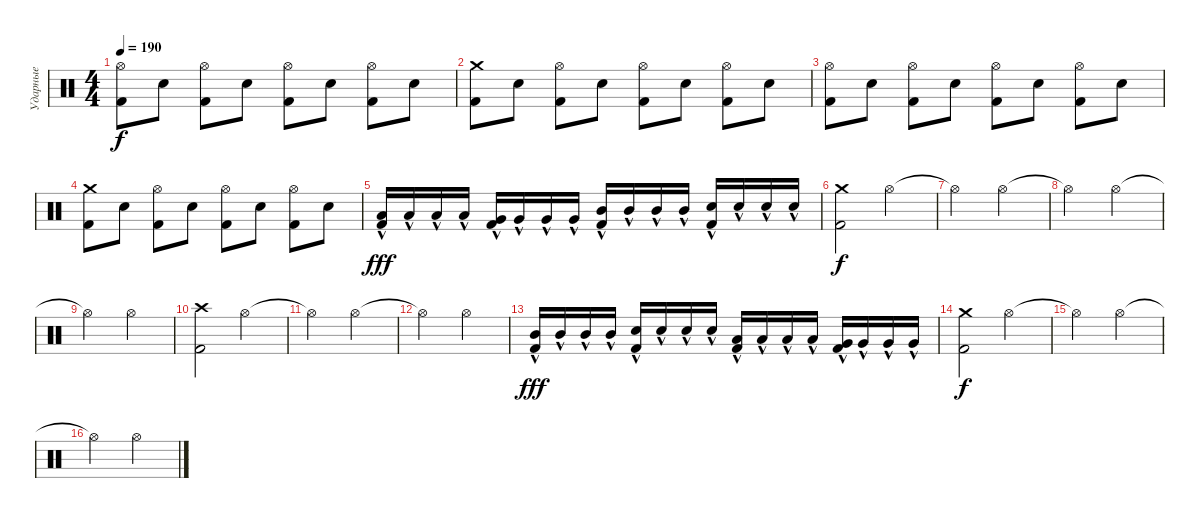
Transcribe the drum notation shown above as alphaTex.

\track ("Ударные" "Ударные") {instrument percussion}
\staff {score}
\articulation defaults
\ts (4 4)
\tempo 190
\clef neutral
\ks c
("Hi-Hat (open)" "Kick (hit) 2").8{dy f} "Electric Snare (hit)".8 ("Hi-Hat (open)" "Kick (hit) 2").8 "Electric Snare (hit)".8 ("Hi-Hat (open)" "Kick (hit) 2").8 "Electric Snare (hit)".8 ("Hi-Hat (open)" "Kick (hit) 2").8 "Electric Snare (hit)".8 |
("Crash medium (hit)" "Kick (hit) 2").8 "Electric Snare (hit)".8 ("Hi-Hat (open)" "Kick (hit) 2").8 "Electric Snare (hit)".8 ("Hi-Hat (open)" "Kick (hit) 2").8 "Electric Snare (hit)".8 ("Hi-Hat (open)" "Kick (hit) 2").8 "Electric Snare (hit)".8 |
("Hi-Hat (open)" "Kick (hit) 2").8 "Electric Snare (hit)".8 ("Hi-Hat (open)" "Kick (hit) 2").8 "Electric Snare (hit)".8 ("Hi-Hat (open)" "Kick (hit) 2").8 "Electric Snare (hit)".8 ("Hi-Hat (open)" "Kick (hit) 2").8 "Electric Snare (hit)".8 |
("Crash medium (hit)" "Kick (hit) 2").8 "Electric Snare (hit)".8 ("Hi-Hat (open)" "Kick (hit) 2").8 "Electric Snare (hit)".8 ("Hi-Hat (open)" "Kick (hit) 2").8 "Electric Snare (hit)".8 ("Hi-Hat (open)" "Kick (hit) 2").8 "Electric Snare (hit)".8 |
("Low Tom (hit)"{hac} "Kick (hit) 2"{hac}).16{dy fff} "Low Tom (hit)"{hac}.16 "Low Tom (hit)"{hac}.16 "Low Tom (hit)"{hac}.16 ("Very Low Tom (hit)"{hac} "Kick (hit) 2"{hac}).16 "Very Low Tom (hit)"{hac}.16 "Very Low Tom (hit)"{hac}.16 "Very Low Tom (hit)"{hac}.16 ("Mid Tom (hit)"{hac} "Kick (hit) 2"{hac}).16 "Mid Tom (hit)"{hac}.16 "Mid Tom (hit)"{hac}.16 "Mid Tom (hit)"{hac}.16 ("Electric Snare (hit)"{hac} "Kick (hit) 2"{hac}).16 "Electric Snare (hit)"{hac}.16 "Electric Snare (hit)"{hac}.16 "Electric Snare (hit)"{hac}.16 |
("Crash medium (hit)" "Kick (hit) 2").2{dy f} "Hi-Hat (open)".2 |
"Hi-Hat (open)"{t}.2 "Hi-Hat (open)".2 |
"Hi-Hat (open)"{t}.2 "Hi-Hat (open)".2 |
"Hi-Hat (open)"{t}.2 "Hi-Hat (open)".2 |
("Crash high (hit)" "Kick (hit) 2").2 "Hi-Hat (open)".2 |
"Hi-Hat (open)"{t}.2 "Hi-Hat (open)".2 |
"Hi-Hat (open)"{t}.2 "Hi-Hat (open)".2 |
("Mid Tom (hit)"{hac} "Kick (hit) 2"{hac}).16{dy fff} "Mid Tom (hit)"{hac}.16 "Mid Tom (hit)"{hac}.16 "Mid Tom (hit)"{hac}.16 ("Electric Snare (hit)"{hac} "Kick (hit) 2"{hac}).16 "Electric Snare (hit)"{hac}.16 "Electric Snare (hit)"{hac}.16 "Electric Snare (hit)"{hac}.16 ("Low Tom (hit)"{hac} "Kick (hit) 2"{hac}).16 "Low Tom (hit)"{hac}.16 "Low Tom (hit)"{hac}.16 "Low Tom (hit)"{hac}.16 ("Very Low Tom (hit)"{hac} "Kick (hit) 2"{hac}).16 "Very Low Tom (hit)"{hac}.16 "Very Low Tom (hit)"{hac}.16 "Very Low Tom (hit)"{hac}.16 |
("Crash medium (hit)" "Kick (hit) 2").2{dy f} "Hi-Hat (open)".2 |
"Hi-Hat (open)"{t}.2 "Hi-Hat (open)".2 |
"Hi-Hat (open)"{t}.2 "Hi-Hat (open)".2
